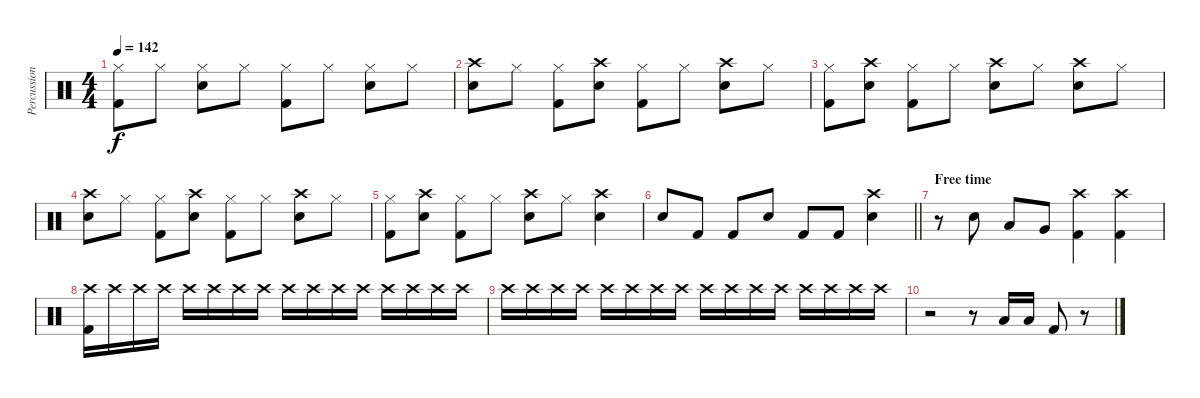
\track ("Percussion" "Percussion") {instrument percussion}
\staff {score}
\articulation defaults
\ts (4 4)
\tempo 142
\clef neutral
\ks c
("Hi-Hat (closed)" "Kick (hit) 2").8{dy f} "Hi-Hat (closed)".8 ("Hi-Hat (closed)" "Electric Snare (hit)").8 "Hi-Hat (closed)".8 ("Hi-Hat (closed)" "Kick (hit) 2").8 "Hi-Hat (closed)".8 ("Hi-Hat (closed)" "Electric Snare (hit)").8 "Hi-Hat (closed)".8 |
("Crash high (hit)" "Electric Snare (hit)").8 "Hi-Hat (closed)".8 ("Hi-Hat (closed)" "Kick (hit) 2").8 ("Crash high (hit)" "Electric Snare (hit)").8 ("Hi-Hat (closed)" "Kick (hit) 2").8 "Hi-Hat (closed)".8 ("Crash high (hit)" "Electric Snare (hit)").8 "Hi-Hat (closed)".8 |
("Hi-Hat (closed)" "Kick (hit) 2").8 ("Crash high (hit)" "Electric Snare (hit)").8 ("Hi-Hat (closed)" "Kick (hit) 2").8 "Hi-Hat (closed)".8 ("Crash high (hit)" "Electric Snare (hit)").8 "Hi-Hat (closed)".8 ("Crash high (hit)" "Electric Snare (hit)").8 "Hi-Hat (closed)".8 |
("Crash high (hit)" "Electric Snare (hit)").8 "Hi-Hat (closed)".8 ("Hi-Hat (closed)" "Kick (hit) 2").8 ("Crash high (hit)" "Electric Snare (hit)").8 ("Hi-Hat (closed)" "Kick (hit) 2").8 "Hi-Hat (closed)".8 ("Crash high (hit)" "Electric Snare (hit)").8 "Hi-Hat (closed)".8 |
("Hi-Hat (closed)" "Kick (hit) 2").8 ("Crash high (hit)" "Electric Snare (hit)").8 ("Hi-Hat (closed)" "Kick (hit) 2").8 "Hi-Hat (closed)".8 ("Crash high (hit)" "Electric Snare (hit)").8 "Hi-Hat (closed)".8 ("Crash high (hit)" "Electric Snare (hit)").4 |
\barLineRight lightlight "Electric Snare (hit)".8 "Kick (hit) 2".8 "Kick (hit) 2".8 "Electric Snare (hit)".8 "Kick (hit) 2".8 "Kick (hit) 2".8
("Crash high (hit)" "Electric Snare (hit)").4 |
\section ("" "Free time")
r.8 "Electric Snare (hit)".8 "Low Tom (hit)".8 "Very Low Tom (hit)".8 ("Crash high (hit)" "Kick (hit) 2").4 ("Crash high (hit)" "Kick (hit) 2").4 |
("Crash high (hit)" "Kick (hit) 2").16 "Crash high (hit)".16 "Crash high (hit)".16 "Crash high (hit)".16 "Crash high (hit)".16 "Crash high (hit)".16 "Crash high (hit)".16 "Crash high (hit)".16 "Crash high (hit)".16 "Crash high (hit)".16 "Crash high (hit)".16 "Crash high (hit)".16 "Crash high (hit)".16 "Crash high (hit)".16 "Crash high (hit)".16 "Crash high (hit)".16 |
"Crash high (hit)".16 "Crash high (hit)".16 "Crash high (hit)".16 "Crash high (hit)".16 "Crash high (hit)".16 "Crash high (hit)".16 "Crash high (hit)".16 "Crash high (hit)".16 "Crash high (hit)".16 "Crash high (hit)".16 "Crash high (hit)".16 "Crash high (hit)".16 "Crash high (hit)".16 "Crash high (hit)".16 "Crash high (hit)".16 "Crash high (hit)".16 |
r.2 r.8 "Low Tom (hit)".16 "Low Tom (hit)".16 "Kick (hit) 2".8 r.8
